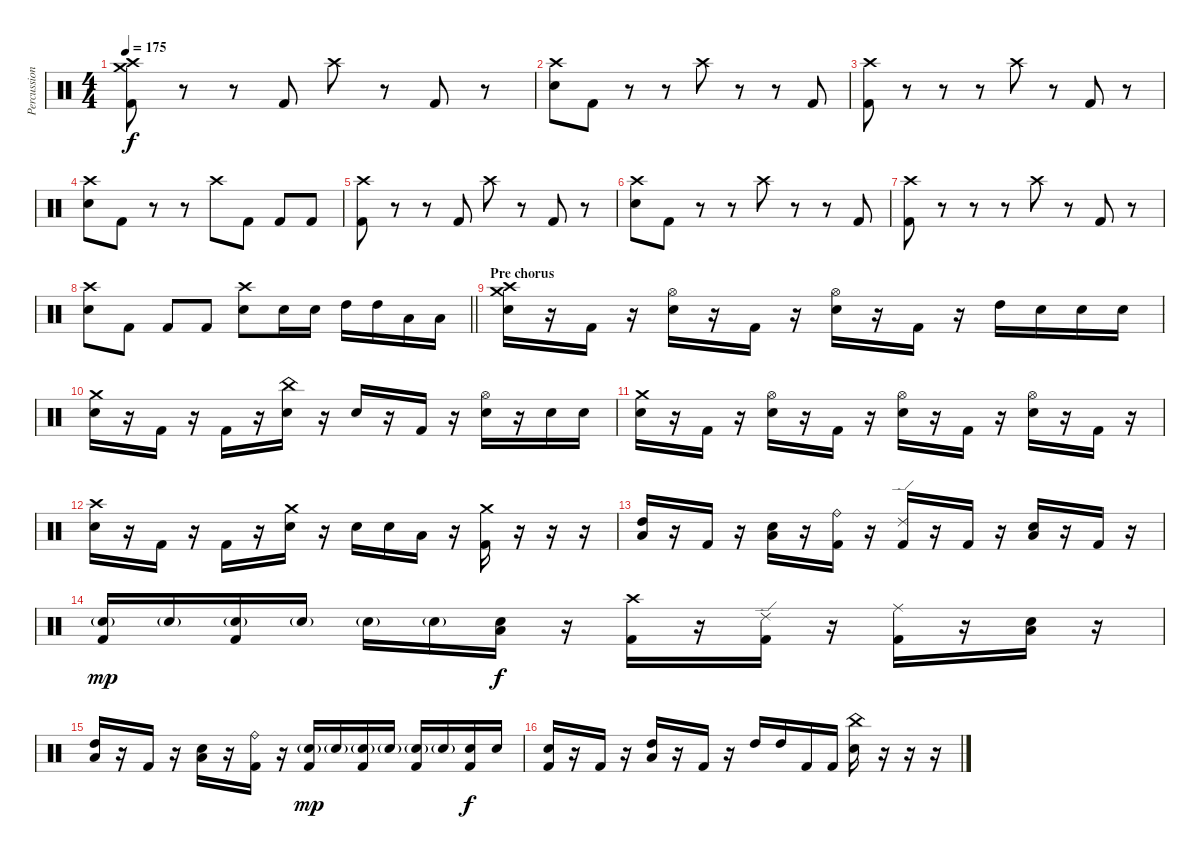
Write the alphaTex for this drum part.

\track ("Percussion" "Percussion") {instrument percussion}
\staff {score}
\articulation defaults
\ts (4 4)
\tempo 175
\clef neutral
\ks c
("Crash high (hit)" "Crash medium (hit)" "Kick (hit) 2").8{dy f} r.8 r.8 "Kick (hit) 2".8 "Crash high (hit)".8 r.8 "Kick (hit) 2".8 r.8 |
("Crash high (hit)" "Electric Snare (hit)").8 "Kick (hit) 2".8 r.8 r.8 "Crash high (hit)".8 r.8 r.8 "Kick (hit) 2".8 |
("Crash high (hit)" "Kick (hit) 2").8 r.8 r.8 r.8 "Crash high (hit)".8 r.8 "Kick (hit) 2".8 r.8 |
("Crash high (hit)" "Electric Snare (hit)").8 "Kick (hit) 2".8 r.8 r.8 "Crash high (hit)".8 "Kick (hit) 2".8 "Kick (hit) 2".8 "Kick (hit) 2".8 |
("Crash high (hit)" "Kick (hit) 2").8 r.8 r.8 "Kick (hit) 2".8 "Crash high (hit)".8 r.8 "Kick (hit) 2".8 r.8 |
("Crash high (hit)" "Electric Snare (hit)").8 "Kick (hit) 2".8 r.8 r.8 "Crash high (hit)".8 r.8 r.8 "Kick (hit) 2".8 |
("Crash high (hit)" "Kick (hit) 2").8 r.8 r.8 r.8 "Crash high (hit)".8 r.8 "Kick (hit) 2".8 r.8 |
\barLineRight lightlight
("Crash high (hit)" "Electric Snare (hit)").8 "Kick (hit) 2".8 "Kick (hit) 2".8 "Kick (hit) 2".8 ("Crash high (hit)" "Electric Snare (hit)").8 "Electric Snare (hit)".16 "Electric Snare (hit)".16 "High Tom (hit)".16 "High Tom (hit)".16 "Low Floor Tom (hit)".16 "Low Floor Tom (hit)".16 |
\section ("" "Pre chorus")
("Crash medium (hit)" "Crash high (hit)" "Electric Snare (hit)").16 r.16 "Kick (hit) 2".16 r.16 ("Hi-Hat (open)" "Electric Snare (hit)").16 r.16 "Kick (hit) 2".16 r.16 ("Hi-Hat (open)" "Electric Snare (hit)").16 r.16 "Kick (hit) 2".16 r.16 "High Tom (hit)".16 "Electric Snare (hit)".16 "Electric Snare (hit)".16 "Electric Snare (hit)".16 |
("Crash medium (hit)" "Electric Snare (hit)").16 r.16 "Kick (hit) 2".16 r.16 "Kick (hit) 2".16 r.16 ("China (hit)" "Electric Snare (hit)").16 r.16 "Electric Snare (hit)".16 r.16 "Kick (hit) 2".16 r.16 ("Hi-Hat (open)" "Electric Snare (hit)").16 r.16 "Electric Snare (hit)".16 "Electric Snare (hit)".16 |
("Crash medium (hit)" "Electric Snare (hit)").16 r.16 "Kick (hit) 2".16 r.16 ("Hi-Hat (open)" "Electric Snare (hit)").16 r.16 "Kick (hit) 2".16 r.16 ("Hi-Hat (open)" "Electric Snare (hit)").16 r.16 "Kick (hit) 2".16 r.16 ("Hi-Hat (open)" "Electric Snare (hit)").16 r.16 "Kick (hit) 2".16 r.16 |
("Crash high (hit)" "Electric Snare (hit)").16 r.16 "Kick (hit) 2".16 r.16 "Kick (hit) 2".16 r.16 ("Crash medium (hit)" "Electric Snare (hit)").16 r.16 "Electric Snare (hit)".16 "Electric Snare (hit)".16 "Low Floor Tom (hit)".16 r.16 ("Crash medium (hit)" "Kick (hit) 2").16 r.16 r.16 r.16 |
("High Tom (hit)" "Low Floor Tom (hit)").16 r.16 "Kick (hit) 2".16 r.16 ("Low Floor Tom (hit)" "Electric Snare (hit)").16 r.16 ("Ride (bell)" "Kick (hit) 2").16 r.16 ("Ride (edge) 2" "Kick (hit) 2").16 r.16 "Kick (hit) 2".16 r.16 ("Low Floor Tom (hit)" "Electric Snare (hit)").16 r.16 "Kick (hit) 2".16 r.16 |
("Electric Snare (hit)"{g} "Kick (hit) 2").16{dy mp} "Electric Snare (hit)"{g}.16 ("Electric Snare (hit)"{g} "Kick (hit) 2").16 "Electric Snare (hit)"{g}.16 "Electric Snare (hit)"{g}.16 "Electric Snare (hit)"{g}.16 ("Low Floor Tom (hit)" "Electric Snare (hit)").16{dy f} r.16 ("Crash high (hit)" "Kick (hit) 2").16 r.16 ("Ride (edge) 2" "Kick (hit) 2").16 r.16 ("Ride (middle)" "Kick (hit) 2").16 r.16 ("Low Floor Tom (hit)" "Electric Snare (hit)").16 r.16 |
("Low Floor Tom (hit)" "High Tom (hit)").16 r.16 "Kick (hit) 2".16 r.16 ("Electric Snare (hit)" "Low Floor Tom (hit)").16 r.16 ("Ride (bell)" "Kick (hit) 2").16 r.16 ("Electric Snare (hit)"{g} "Kick (hit) 2").16{dy mp} "Electric Snare (hit)"{g}.16 ("Electric Snare (hit)"{g} "Kick (hit) 2").16 "Electric Snare (hit)"{g}.16 ("Electric Snare (hit)"{g} "Kick (hit) 2").16 "Electric Snare (hit)"{g}.16 ("Electric Snare (hit)" "Kick (hit) 2").16{dy f} "Electric Snare (hit)".16 |
("Electric Snare (hit)" "Kick (hit) 2").16 r.16 "Kick (hit) 2".16 r.16 ("Low Floor Tom (hit)" "High Tom (hit)").16 r.16 "Kick (hit) 2".16 r.16 "High Tom (hit)".16 "High Tom (hit)".16 "Kick (hit) 2".16 "Kick (hit) 2".16 ("China (hit)" "Electric Snare (hit)").16 r.16 r.16 r.16
